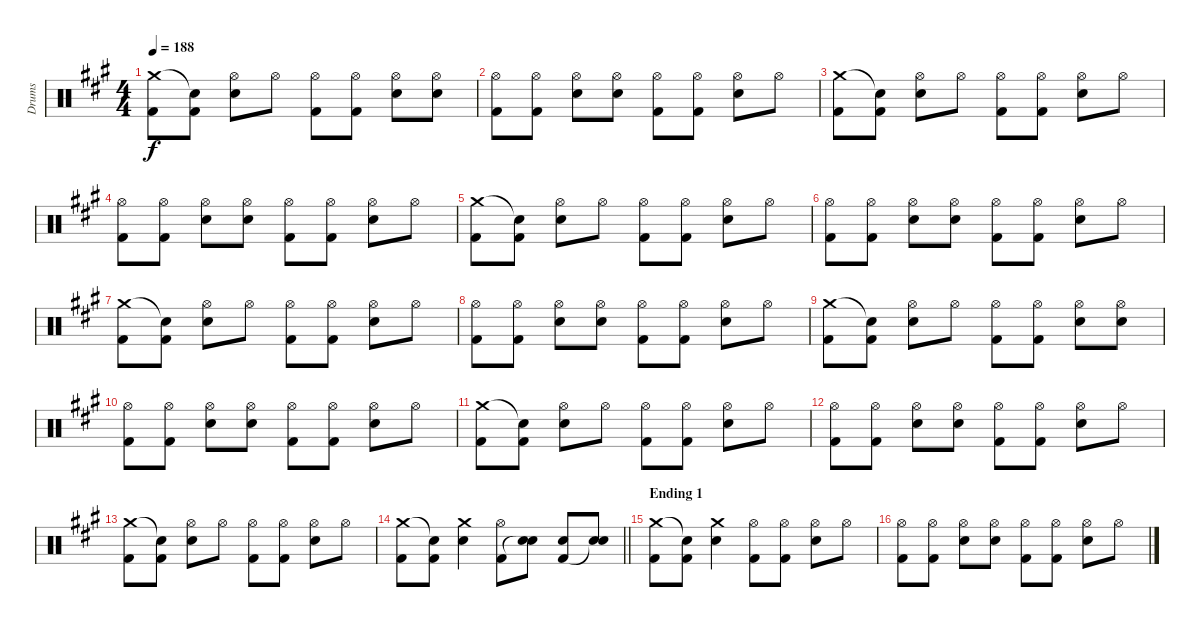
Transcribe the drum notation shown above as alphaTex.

\track ("Drums" "Drums") {instrument percussion}
\staff {score}
\articulation defaults
\ts (4 4)
\tempo 188
\clef neutral
\ks a
("Crash medium (hit)" "Kick (hit) 2").8{dy f} ("Snare (hit)"{t} "Kick (hit) 2").8 ("Hi-Hat (open)" "Electric Snare (hit)").8 "Hi-Hat (open)".8 ("Hi-Hat (open)" "Kick (hit) 2").8 ("Hi-Hat (open)" "Kick (hit) 2").8 ("Hi-Hat (open)" "Electric Snare (hit)").8 ("Hi-Hat (open)" "Electric Snare (hit)").8 |
("Hi-Hat (open)" "Kick (hit) 2").8 ("Hi-Hat (open)" "Kick (hit) 2").8 ("Hi-Hat (open)" "Electric Snare (hit)").8 ("Hi-Hat (open)" "Electric Snare (hit)").8 ("Hi-Hat (open)" "Kick (hit) 2").8 ("Hi-Hat (open)" "Kick (hit) 2").8 ("Hi-Hat (open)" "Electric Snare (hit)").8 "Hi-Hat (open)".8 |
("Crash medium (hit)" "Kick (hit) 2").8 ("Snare (hit)"{t} "Kick (hit) 2").8 ("Hi-Hat (open)" "Electric Snare (hit)").8 "Hi-Hat (open)".8 ("Hi-Hat (open)" "Kick (hit) 2").8 ("Hi-Hat (open)" "Kick (hit) 2").8 ("Hi-Hat (open)" "Electric Snare (hit)").8 "Hi-Hat (open)".8 |
("Hi-Hat (open)" "Kick (hit) 2").8 ("Hi-Hat (open)" "Kick (hit) 2").8 ("Hi-Hat (open)" "Electric Snare (hit)").8 ("Hi-Hat (open)" "Electric Snare (hit)").8 ("Hi-Hat (open)" "Kick (hit) 2").8 ("Hi-Hat (open)" "Kick (hit) 2").8 ("Hi-Hat (open)" "Electric Snare (hit)").8 "Hi-Hat (open)".8 |
("Crash medium (hit)" "Kick (hit) 2").8 ("Snare (hit)"{t} "Kick (hit) 2").8 ("Hi-Hat (open)" "Electric Snare (hit)").8 "Hi-Hat (open)".8 ("Hi-Hat (open)" "Kick (hit) 2").8 ("Hi-Hat (open)" "Kick (hit) 2").8 ("Hi-Hat (open)" "Electric Snare (hit)").8 "Hi-Hat (open)".8 |
("Hi-Hat (open)" "Kick (hit) 2").8 ("Hi-Hat (open)" "Kick (hit) 2").8 ("Hi-Hat (open)" "Electric Snare (hit)").8 ("Hi-Hat (open)" "Electric Snare (hit)").8 ("Hi-Hat (open)" "Kick (hit) 2").8 ("Hi-Hat (open)" "Kick (hit) 2").8 ("Hi-Hat (open)" "Electric Snare (hit)").8 "Hi-Hat (open)".8 |
("Crash medium (hit)" "Kick (hit) 2").8 ("Snare (hit)"{t} "Kick (hit) 2").8 ("Hi-Hat (open)" "Electric Snare (hit)").8 "Hi-Hat (open)".8 ("Hi-Hat (open)" "Kick (hit) 2").8 ("Hi-Hat (open)" "Kick (hit) 2").8 ("Hi-Hat (open)" "Electric Snare (hit)").8 "Hi-Hat (open)".8 |
("Hi-Hat (open)" "Kick (hit) 2").8 ("Hi-Hat (open)" "Kick (hit) 2").8 ("Hi-Hat (open)" "Electric Snare (hit)").8 ("Hi-Hat (open)" "Electric Snare (hit)").8 ("Hi-Hat (open)" "Kick (hit) 2").8 ("Hi-Hat (open)" "Kick (hit) 2").8 ("Hi-Hat (open)" "Electric Snare (hit)").8 "Hi-Hat (open)".8 |
("Crash medium (hit)" "Kick (hit) 2").8 ("Snare (hit)"{t} "Kick (hit) 2").8 ("Hi-Hat (open)" "Electric Snare (hit)").8 "Hi-Hat (open)".8 ("Hi-Hat (open)" "Kick (hit) 2").8 ("Hi-Hat (open)" "Kick (hit) 2").8 ("Hi-Hat (open)" "Electric Snare (hit)").8 ("Hi-Hat (open)" "Electric Snare (hit)").8 |
("Hi-Hat (open)" "Kick (hit) 2").8 ("Hi-Hat (open)" "Kick (hit) 2").8 ("Hi-Hat (open)" "Electric Snare (hit)").8 ("Hi-Hat (open)" "Electric Snare (hit)").8 ("Hi-Hat (open)" "Kick (hit) 2").8 ("Hi-Hat (open)" "Kick (hit) 2").8 ("Hi-Hat (open)" "Electric Snare (hit)").8 "Hi-Hat (open)".8 |
("Crash medium (hit)" "Kick (hit) 2").8 ("Snare (hit)"{t} "Kick (hit) 2").8 ("Hi-Hat (open)" "Electric Snare (hit)").8 "Hi-Hat (open)".8 ("Hi-Hat (open)" "Kick (hit) 2").8 ("Hi-Hat (open)" "Kick (hit) 2").8 ("Hi-Hat (open)" "Electric Snare (hit)").8 "Hi-Hat (open)".8 |
("Hi-Hat (open)" "Kick (hit) 2").8 ("Hi-Hat (open)" "Kick (hit) 2").8 ("Hi-Hat (open)" "Electric Snare (hit)").8 ("Hi-Hat (open)" "Electric Snare (hit)").8 ("Hi-Hat (open)" "Kick (hit) 2").8 ("Hi-Hat (open)" "Kick (hit) 2").8 ("Hi-Hat (open)" "Electric Snare (hit)").8 "Hi-Hat (open)".8 |
("Crash medium (hit)" "Kick (hit) 2").8 ("Snare (hit)"{t} "Kick (hit) 2").8 ("Hi-Hat (open)" "Electric Snare (hit)").8 "Hi-Hat (open)".8 ("Hi-Hat (open)" "Kick (hit) 2").8 ("Hi-Hat (open)" "Kick (hit) 2").8 ("Hi-Hat (open)" "Electric Snare (hit)").8 "Hi-Hat (open)".8 |
\barLineRight lightlight
("Crash medium (hit)" "Kick (hit) 2").8 ("Snare (hit)"{t} "Kick (hit) 2").8 ("Crash medium (hit)" "Electric Snare (hit)").4 ("Hi-Hat (open)" "Kick (hit) 2").8 ("Electric Snare (hit)" "Snare (hit)"{t}).8 ("Electric Snare (hit)" "Kick (hit) 2").8 ("Electric Snare (hit)" "Snare (hit)"{t}).8 |
\section ("" "Ending 1")
("Crash medium (hit)" "Kick (hit) 2").8 ("Snare (hit)"{t} "Kick (hit) 2").8 ("Crash medium (hit)" "Electric Snare (hit)").4 ("Hi-Hat (open)" "Kick (hit) 2").8 ("Hi-Hat (open)" "Kick (hit) 2").8 ("Hi-Hat (open)" "Electric Snare (hit)").8 "Hi-Hat (open)".8 |
("Hi-Hat (open)" "Kick (hit) 2").8 ("Hi-Hat (open)" "Kick (hit) 2").8 ("Hi-Hat (open)" "Electric Snare (hit)").8 ("Hi-Hat (open)" "Electric Snare (hit)").8 ("Hi-Hat (open)" "Kick (hit) 2").8 ("Hi-Hat (open)" "Kick (hit) 2").8 ("Hi-Hat (open)" "Electric Snare (hit)").8 "Hi-Hat (open)".8
